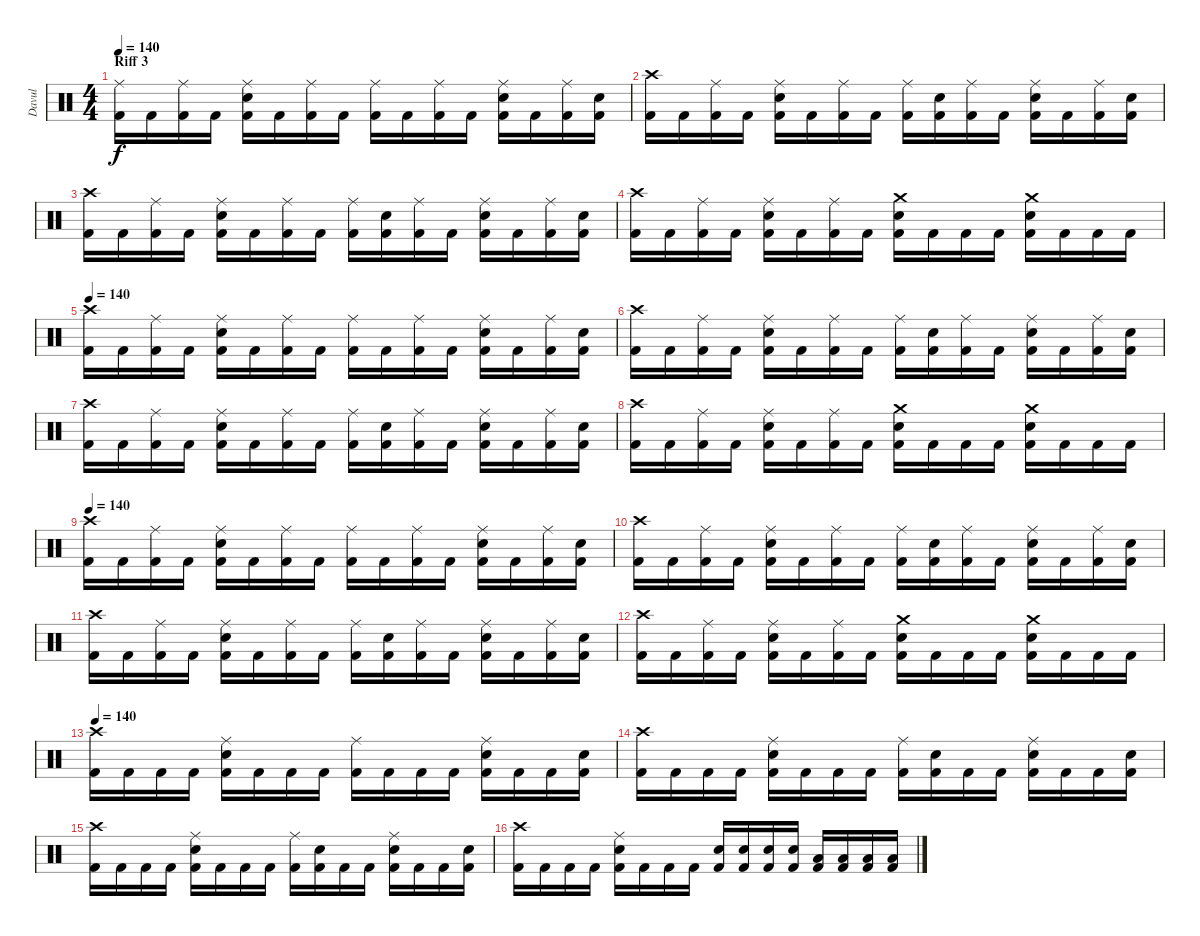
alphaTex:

\track ("Davul" "Davul") {instrument percussion}
\staff {score}
\articulation defaults
\ts (4 4)
\section ("" "Riff 3")
\tempo 140
\clef neutral
\ks c
("Ride (middle)" "Kick (hit) 2").16{dy f} "Kick (hit) 2".16 ("Ride (middle)" "Kick (hit) 2").16 "Kick (hit) 2".16 ("Ride (middle)" "Electric Snare (hit)" "Kick (hit) 2").16 "Kick (hit) 2".16 ("Ride (middle)" "Kick (hit) 2").16 "Kick (hit) 2".16 ("Ride (middle)" "Kick (hit) 2").16 "Kick (hit) 2".16 ("Ride (middle)" "Kick (hit) 2").16 "Kick (hit) 2".16 ("Ride (middle)" "Electric Snare (hit)" "Kick (hit) 2").16 "Kick (hit) 2".16 ("Ride (middle)" "Kick (hit) 2").16 ("Electric Snare (hit)" "Kick (hit) 2").16 |
("Crash high (hit)" "Kick (hit) 2").16 "Kick (hit) 2".16 ("Ride (middle)" "Kick (hit) 2").16 "Kick (hit) 2".16 ("Ride (middle)" "Electric Snare (hit)" "Kick (hit) 2").16 "Kick (hit) 2".16 ("Ride (middle)" "Kick (hit) 2").16 "Kick (hit) 2".16 ("Ride (middle)" "Kick (hit) 2").16 ("Electric Snare (hit)" "Kick (hit) 2").16 ("Ride (middle)" "Kick (hit) 2").16 "Kick (hit) 2".16 ("Ride (middle)" "Electric Snare (hit)" "Kick (hit) 2").16 "Kick (hit) 2".16 ("Ride (middle)" "Kick (hit) 2").16 ("Electric Snare (hit)" "Kick (hit) 2").16 |
("Crash high (hit)" "Kick (hit) 2").16 "Kick (hit) 2".16 ("Ride (middle)" "Kick (hit) 2").16 "Kick (hit) 2".16 ("Ride (middle)" "Electric Snare (hit)" "Kick (hit) 2").16 "Kick (hit) 2".16 ("Ride (middle)" "Kick (hit) 2").16 "Kick (hit) 2".16 ("Ride (middle)" "Kick (hit) 2").16 ("Electric Snare (hit)" "Kick (hit) 2").16 ("Ride (middle)" "Kick (hit) 2").16 "Kick (hit) 2".16 ("Ride (middle)" "Electric Snare (hit)" "Kick (hit) 2").16 "Kick (hit) 2".16 ("Ride (middle)" "Kick (hit) 2").16 ("Electric Snare (hit)" "Kick (hit) 2").16 |
("Crash high (hit)" "Kick (hit) 2").16 "Kick (hit) 2".16 ("Ride (middle)" "Kick (hit) 2").16 "Kick (hit) 2".16 ("Ride (middle)" "Electric Snare (hit)" "Kick (hit) 2").16 "Kick (hit) 2".16 ("Ride (middle)" "Kick (hit) 2").16 "Kick (hit) 2".16 ("Crash medium (hit)" "Electric Snare (hit)" "Kick (hit) 2").16 "Kick (hit) 2".16 "Kick (hit) 2".16 "Kick (hit) 2".16 ("Crash medium (hit)" "Electric Snare (hit)" "Kick (hit) 2").16 "Kick (hit) 2".16 "Kick (hit) 2".16 "Kick (hit) 2".16 |
\tempo 140
("Crash high (hit)" "Kick (hit) 2").16 "Kick (hit) 2".16 ("Ride (middle)" "Kick (hit) 2").16 "Kick (hit) 2".16 ("Ride (middle)" "Electric Snare (hit)" "Kick (hit) 2").16 "Kick (hit) 2".16 ("Ride (middle)" "Kick (hit) 2").16 "Kick (hit) 2".16 ("Ride (middle)" "Kick (hit) 2").16 "Kick (hit) 2".16 ("Ride (middle)" "Kick (hit) 2").16 "Kick (hit) 2".16 ("Ride (middle)" "Electric Snare (hit)" "Kick (hit) 2").16 "Kick (hit) 2".16 ("Ride (middle)" "Kick (hit) 2").16 ("Electric Snare (hit)" "Kick (hit) 2").16 |
("Crash high (hit)" "Kick (hit) 2").16 "Kick (hit) 2".16 ("Ride (middle)" "Kick (hit) 2").16 "Kick (hit) 2".16 ("Ride (middle)" "Electric Snare (hit)" "Kick (hit) 2").16 "Kick (hit) 2".16 ("Ride (middle)" "Kick (hit) 2").16 "Kick (hit) 2".16 ("Ride (middle)" "Kick (hit) 2").16 ("Electric Snare (hit)" "Kick (hit) 2").16 ("Ride (middle)" "Kick (hit) 2").16 "Kick (hit) 2".16 ("Ride (middle)" "Electric Snare (hit)" "Kick (hit) 2").16 "Kick (hit) 2".16 ("Ride (middle)" "Kick (hit) 2").16 ("Electric Snare (hit)" "Kick (hit) 2").16 |
("Crash high (hit)" "Kick (hit) 2").16 "Kick (hit) 2".16 ("Ride (middle)" "Kick (hit) 2").16 "Kick (hit) 2".16 ("Ride (middle)" "Electric Snare (hit)" "Kick (hit) 2").16 "Kick (hit) 2".16 ("Ride (middle)" "Kick (hit) 2").16 "Kick (hit) 2".16 ("Ride (middle)" "Kick (hit) 2").16 ("Electric Snare (hit)" "Kick (hit) 2").16 ("Ride (middle)" "Kick (hit) 2").16 "Kick (hit) 2".16 ("Ride (middle)" "Electric Snare (hit)" "Kick (hit) 2").16 "Kick (hit) 2".16 ("Ride (middle)" "Kick (hit) 2").16 ("Electric Snare (hit)" "Kick (hit) 2").16 |
("Crash high (hit)" "Kick (hit) 2").16 "Kick (hit) 2".16 ("Ride (middle)" "Kick (hit) 2").16 "Kick (hit) 2".16 ("Ride (middle)" "Electric Snare (hit)" "Kick (hit) 2").16 "Kick (hit) 2".16 ("Ride (middle)" "Kick (hit) 2").16 "Kick (hit) 2".16 ("Crash medium (hit)" "Electric Snare (hit)" "Kick (hit) 2").16 "Kick (hit) 2".16 "Kick (hit) 2".16 "Kick (hit) 2".16 ("Crash medium (hit)" "Electric Snare (hit)" "Kick (hit) 2").16 "Kick (hit) 2".16 "Kick (hit) 2".16 "Kick (hit) 2".16 |
\tempo 140
("Crash high (hit)" "Kick (hit) 2").16 "Kick (hit) 2".16 ("Ride (middle)" "Kick (hit) 2").16 "Kick (hit) 2".16 ("Ride (middle)" "Electric Snare (hit)" "Kick (hit) 2").16 "Kick (hit) 2".16 ("Ride (middle)" "Kick (hit) 2").16 "Kick (hit) 2".16 ("Ride (middle)" "Kick (hit) 2").16 "Kick (hit) 2".16 ("Ride (middle)" "Kick (hit) 2").16 "Kick (hit) 2".16 ("Ride (middle)" "Electric Snare (hit)" "Kick (hit) 2").16 "Kick (hit) 2".16 ("Ride (middle)" "Kick (hit) 2").16 ("Electric Snare (hit)" "Kick (hit) 2").16 |
("Crash high (hit)" "Kick (hit) 2").16 "Kick (hit) 2".16 ("Ride (middle)" "Kick (hit) 2").16 "Kick (hit) 2".16 ("Ride (middle)" "Electric Snare (hit)" "Kick (hit) 2").16 "Kick (hit) 2".16 ("Ride (middle)" "Kick (hit) 2").16 "Kick (hit) 2".16 ("Ride (middle)" "Kick (hit) 2").16 ("Electric Snare (hit)" "Kick (hit) 2").16 ("Ride (middle)" "Kick (hit) 2").16 "Kick (hit) 2".16 ("Ride (middle)" "Electric Snare (hit)" "Kick (hit) 2").16 "Kick (hit) 2".16 ("Ride (middle)" "Kick (hit) 2").16 ("Electric Snare (hit)" "Kick (hit) 2").16 |
("Crash high (hit)" "Kick (hit) 2").16 "Kick (hit) 2".16 ("Ride (middle)" "Kick (hit) 2").16 "Kick (hit) 2".16 ("Ride (middle)" "Electric Snare (hit)" "Kick (hit) 2").16 "Kick (hit) 2".16 ("Ride (middle)" "Kick (hit) 2").16 "Kick (hit) 2".16 ("Ride (middle)" "Kick (hit) 2").16 ("Electric Snare (hit)" "Kick (hit) 2").16 ("Ride (middle)" "Kick (hit) 2").16 "Kick (hit) 2".16 ("Ride (middle)" "Electric Snare (hit)" "Kick (hit) 2").16 "Kick (hit) 2".16 ("Ride (middle)" "Kick (hit) 2").16 ("Electric Snare (hit)" "Kick (hit) 2").16 |
("Crash high (hit)" "Kick (hit) 2").16 "Kick (hit) 2".16 ("Ride (middle)" "Kick (hit) 2").16 "Kick (hit) 2".16 ("Ride (middle)" "Electric Snare (hit)" "Kick (hit) 2").16 "Kick (hit) 2".16 ("Ride (middle)" "Kick (hit) 2").16 "Kick (hit) 2".16 ("Crash medium (hit)" "Electric Snare (hit)" "Kick (hit) 2").16 "Kick (hit) 2".16 "Kick (hit) 2".16 "Kick (hit) 2".16 ("Crash medium (hit)" "Electric Snare (hit)" "Kick (hit) 2").16 "Kick (hit) 2".16 "Kick (hit) 2".16 "Kick (hit) 2".16 |
\tempo 140
("Crash high (hit)" "Kick (hit) 2").16 "Kick (hit) 2".16 "Kick (hit) 2".16 "Kick (hit) 2".16 ("Ride (middle)" "Electric Snare (hit)" "Kick (hit) 2").16 "Kick (hit) 2".16 "Kick (hit) 2".16 "Kick (hit) 2".16 ("Ride (middle)" "Kick (hit) 2").16 "Kick (hit) 2".16 "Kick (hit) 2".16 "Kick (hit) 2".16 ("Ride (middle)" "Electric Snare (hit)" "Kick (hit) 2").16 "Kick (hit) 2".16 "Kick (hit) 2".16 ("Electric Snare (hit)" "Kick (hit) 2").16 |
("Crash high (hit)" "Kick (hit) 2").16 "Kick (hit) 2".16 "Kick (hit) 2".16 "Kick (hit) 2".16 ("Ride (middle)" "Electric Snare (hit)" "Kick (hit) 2").16 "Kick (hit) 2".16 "Kick (hit) 2".16 "Kick (hit) 2".16 ("Ride (middle)" "Kick (hit) 2").16 ("Electric Snare (hit)" "Kick (hit) 2").16 "Kick (hit) 2".16 "Kick (hit) 2".16 ("Ride (middle)" "Electric Snare (hit)" "Kick (hit) 2").16 "Kick (hit) 2".16 "Kick (hit) 2".16 ("Electric Snare (hit)" "Kick (hit) 2").16 |
("Crash high (hit)" "Kick (hit) 2").16 "Kick (hit) 2".16 "Kick (hit) 2".16 "Kick (hit) 2".16 ("Ride (middle)" "Electric Snare (hit)" "Kick (hit) 2").16 "Kick (hit) 2".16 "Kick (hit) 2".16 "Kick (hit) 2".16 ("Ride (middle)" "Kick (hit) 2").16 ("Electric Snare (hit)" "Kick (hit) 2").16 "Kick (hit) 2".16 "Kick (hit) 2".16 ("Ride (middle)" "Electric Snare (hit)" "Kick (hit) 2").16 "Kick (hit) 2".16 "Kick (hit) 2".16 ("Electric Snare (hit)" "Kick (hit) 2").16 |
("Crash high (hit)" "Kick (hit) 2").16 "Kick (hit) 2".16 "Kick (hit) 2".16 "Kick (hit) 2".16 ("Ride (middle)" "Electric Snare (hit)" "Kick (hit) 2").16 "Kick (hit) 2".16 "Kick (hit) 2".16 "Kick (hit) 2".16 ("Electric Snare (hit)" "Kick (hit) 2").16 ("Electric Snare (hit)" "Kick (hit) 2").16 ("Electric Snare (hit)" "Kick (hit) 2").16 ("Electric Snare (hit)" "Kick (hit) 2").16 ("Low Tom (hit)" "Kick (hit) 2").16 ("Low Tom (hit)" "Kick (hit) 2").16 ("Low Floor Tom (hit)" "Kick (hit) 2").16 ("Low Floor Tom (hit)" "Kick (hit) 2").16
